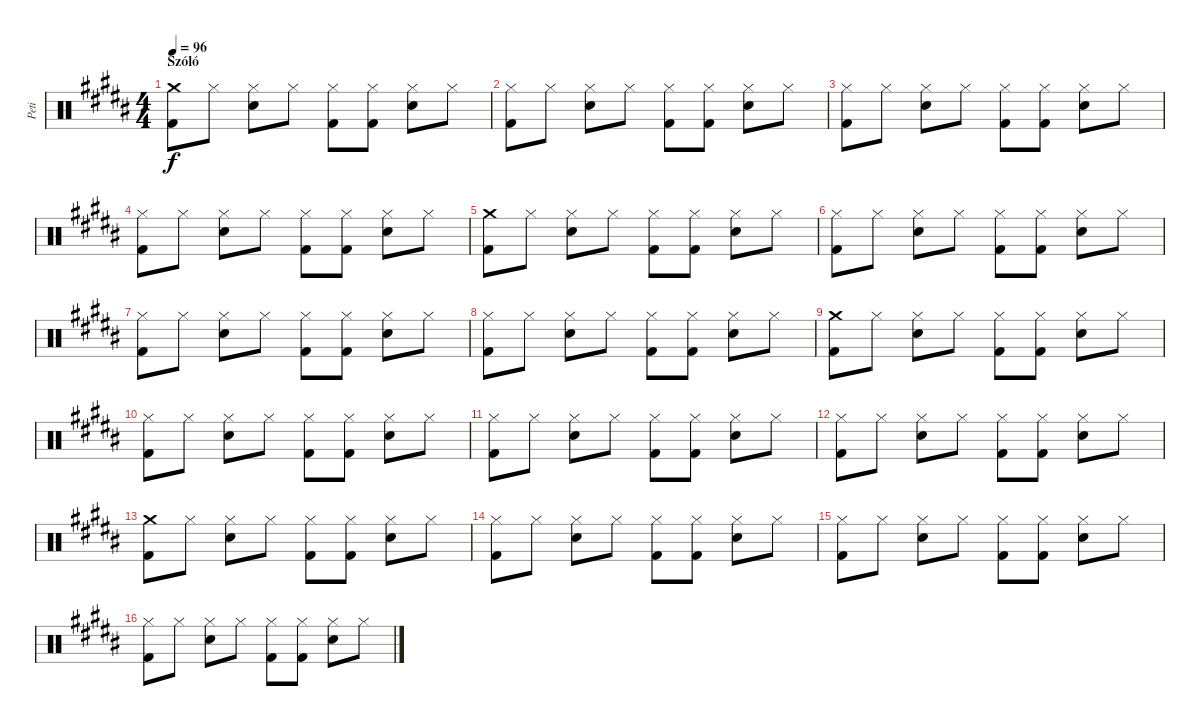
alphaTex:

\track ("Peti" "Peti") {instrument percussion}
\staff {score}
\articulation defaults
\ts (4 4)
\section ("" "Szóló")
\tempo 96
\clef neutral
\ks g#minor
("Crash medium (hit)" "Kick (hit) 2").8{dy f} "Hi-Hat (closed)".8 ("Hi-Hat (closed)" "Snare (hit) 2").8 "Hi-Hat (closed)".8 ("Hi-Hat (closed)" "Kick (hit) 2").8 ("Hi-Hat (closed)" "Kick (hit) 2").8 ("Hi-Hat (closed)" "Snare (hit) 2").8 "Hi-Hat (closed)".8 |
("Hi-Hat (closed)" "Kick (hit) 2").8 "Hi-Hat (closed)".8 ("Hi-Hat (closed)" "Snare (hit) 2").8 "Hi-Hat (closed)".8 ("Hi-Hat (closed)" "Kick (hit) 2").8 ("Hi-Hat (closed)" "Kick (hit) 2").8 ("Hi-Hat (closed)" "Snare (hit) 2").8 "Hi-Hat (closed)".8 |
("Hi-Hat (closed)" "Kick (hit) 2").8 "Hi-Hat (closed)".8 ("Hi-Hat (closed)" "Snare (hit) 2").8 "Hi-Hat (closed)".8 ("Hi-Hat (closed)" "Kick (hit) 2").8 ("Hi-Hat (closed)" "Kick (hit) 2").8 ("Hi-Hat (closed)" "Snare (hit) 2").8 "Hi-Hat (closed)".8 |
("Hi-Hat (closed)" "Kick (hit) 2").8 "Hi-Hat (closed)".8 ("Hi-Hat (closed)" "Snare (hit) 2").8 "Hi-Hat (closed)".8 ("Hi-Hat (closed)" "Kick (hit) 2").8 ("Hi-Hat (closed)" "Kick (hit) 2").8 ("Hi-Hat (closed)" "Snare (hit) 2").8 "Hi-Hat (closed)".8 |
("Crash medium (hit)" "Kick (hit) 2").8 "Hi-Hat (closed)".8 ("Hi-Hat (closed)" "Snare (hit) 2").8 "Hi-Hat (closed)".8 ("Hi-Hat (closed)" "Kick (hit) 2").8 ("Hi-Hat (closed)" "Kick (hit) 2").8 ("Hi-Hat (closed)" "Snare (hit) 2").8 "Hi-Hat (closed)".8 |
("Hi-Hat (closed)" "Kick (hit) 2").8 "Hi-Hat (closed)".8 ("Hi-Hat (closed)" "Snare (hit) 2").8 "Hi-Hat (closed)".8 ("Hi-Hat (closed)" "Kick (hit) 2").8 ("Hi-Hat (closed)" "Kick (hit) 2").8 ("Hi-Hat (closed)" "Snare (hit) 2").8 "Hi-Hat (closed)".8 |
("Hi-Hat (closed)" "Kick (hit) 2").8 "Hi-Hat (closed)".8 ("Hi-Hat (closed)" "Snare (hit) 2").8 "Hi-Hat (closed)".8 ("Hi-Hat (closed)" "Kick (hit) 2").8 ("Hi-Hat (closed)" "Kick (hit) 2").8 ("Hi-Hat (closed)" "Snare (hit) 2").8 "Hi-Hat (closed)".8 |
("Hi-Hat (closed)" "Kick (hit) 2").8 "Hi-Hat (closed)".8 ("Hi-Hat (closed)" "Snare (hit) 2").8 "Hi-Hat (closed)".8 ("Hi-Hat (closed)" "Kick (hit) 2").8 ("Hi-Hat (closed)" "Kick (hit) 2").8 ("Hi-Hat (closed)" "Snare (hit) 2").8 "Hi-Hat (closed)".8 |
("Crash medium (hit)" "Kick (hit) 2").8 "Hi-Hat (closed)".8 ("Hi-Hat (closed)" "Snare (hit) 2").8 "Hi-Hat (closed)".8 ("Hi-Hat (closed)" "Kick (hit) 2").8 ("Hi-Hat (closed)" "Kick (hit) 2").8 ("Hi-Hat (closed)" "Snare (hit) 2").8 "Hi-Hat (closed)".8 |
("Hi-Hat (closed)" "Kick (hit) 2").8 "Hi-Hat (closed)".8 ("Hi-Hat (closed)" "Snare (hit) 2").8 "Hi-Hat (closed)".8 ("Hi-Hat (closed)" "Kick (hit) 2").8 ("Hi-Hat (closed)" "Kick (hit) 2").8 ("Hi-Hat (closed)" "Snare (hit) 2").8 "Hi-Hat (closed)".8 |
("Hi-Hat (closed)" "Kick (hit) 2").8 "Hi-Hat (closed)".8 ("Hi-Hat (closed)" "Snare (hit) 2").8 "Hi-Hat (closed)".8 ("Hi-Hat (closed)" "Kick (hit) 2").8 ("Hi-Hat (closed)" "Kick (hit) 2").8 ("Hi-Hat (closed)" "Snare (hit) 2").8 "Hi-Hat (closed)".8 |
("Hi-Hat (closed)" "Kick (hit) 2").8 "Hi-Hat (closed)".8 ("Hi-Hat (closed)" "Snare (hit) 2").8 "Hi-Hat (closed)".8 ("Hi-Hat (closed)" "Kick (hit) 2").8 ("Hi-Hat (closed)" "Kick (hit) 2").8 ("Hi-Hat (closed)" "Snare (hit) 2").8 "Hi-Hat (closed)".8 |
("Crash medium (hit)" "Kick (hit) 2").8 "Hi-Hat (closed)".8 ("Hi-Hat (closed)" "Snare (hit) 2").8 "Hi-Hat (closed)".8 ("Hi-Hat (closed)" "Kick (hit) 2").8 ("Hi-Hat (closed)" "Kick (hit) 2").8 ("Hi-Hat (closed)" "Snare (hit) 2").8 "Hi-Hat (closed)".8 |
("Hi-Hat (closed)" "Kick (hit) 2").8 "Hi-Hat (closed)".8 ("Hi-Hat (closed)" "Snare (hit) 2").8 "Hi-Hat (closed)".8 ("Hi-Hat (closed)" "Kick (hit) 2").8 ("Hi-Hat (closed)" "Kick (hit) 2").8 ("Hi-Hat (closed)" "Snare (hit) 2").8 "Hi-Hat (closed)".8 |
("Hi-Hat (closed)" "Kick (hit) 2").8 "Hi-Hat (closed)".8 ("Hi-Hat (closed)" "Snare (hit) 2").8 "Hi-Hat (closed)".8 ("Hi-Hat (closed)" "Kick (hit) 2").8 ("Hi-Hat (closed)" "Kick (hit) 2").8 ("Hi-Hat (closed)" "Snare (hit) 2").8 "Hi-Hat (closed)".8 |
("Hi-Hat (closed)" "Kick (hit) 2").8 "Hi-Hat (closed)".8 ("Hi-Hat (closed)" "Snare (hit) 2").8 "Hi-Hat (closed)".8 ("Hi-Hat (closed)" "Kick (hit) 2").8 ("Hi-Hat (closed)" "Kick (hit) 2").8 ("Hi-Hat (closed)" "Snare (hit) 2").8 "Hi-Hat (closed)".8
